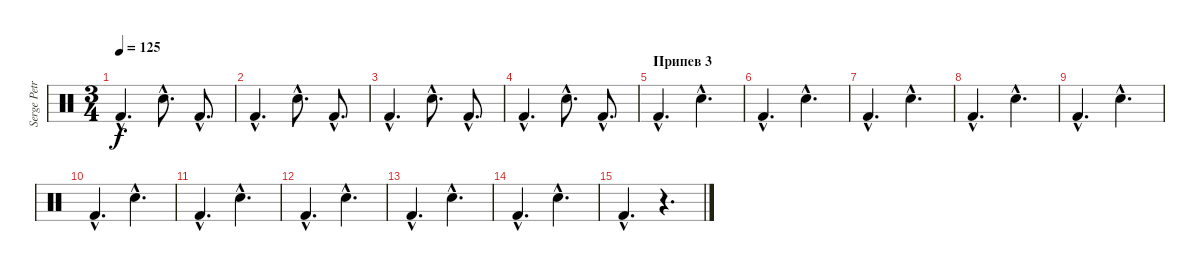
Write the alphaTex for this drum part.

\track ("Serge Petrone" "Serge Petr") {instrument percussion}
\staff {score}
\articulation defaults
\ts (3 4)
\tempo 125
\clef neutral
\ks c "Kick (hit) 2"{hac}.4{d dy f} "Snare (hit) 2"{hac}.8{d} "Kick (hit) 2"{hac}.8{d}
|
"Kick (hit) 2"{hac}.4{d} "Snare (hit) 2"{hac}.8{d} "Kick (hit) 2"{hac}.8{d} |
"Kick (hit) 2"{hac}.4{d} "Snare (hit) 2"{hac}.8{d} "Kick (hit) 2"{hac}.8{d} |
"Kick (hit) 2"{hac}.4{d} "Snare (hit) 2"{hac}.8{d} "Kick (hit) 2"{hac}.8{d} |
\section ("" "Припев 3")
"Kick (hit) 2"{hac}.4{d} "Snare (hit) 2"{hac}.4{d} |
"Kick (hit) 2"{hac}.4{d} "Snare (hit) 2"{hac}.4{d} |
"Kick (hit) 2"{hac}.4{d} "Snare (hit) 2"{hac}.4{d} |
"Kick (hit) 2"{hac}.4{d} "Snare (hit) 2"{hac}.4{d} |
"Kick (hit) 2"{hac}.4{d} "Snare (hit) 2"{hac}.4{d} |
"Kick (hit) 2"{hac}.4{d} "Snare (hit) 2"{hac}.4{d} |
"Kick (hit) 2"{hac}.4{d} "Snare (hit) 2"{hac}.4{d} |
"Kick (hit) 2"{hac}.4{d} "Snare (hit) 2"{hac}.4{d} |
"Kick (hit) 2"{hac}.4{d} "Snare (hit) 2"{hac}.4{d} |
"Kick (hit) 2"{hac}.4{d} "Snare (hit) 2"{hac}.4{d} |
"Kick (hit) 2"{hac}.4{d} r.4{d}
